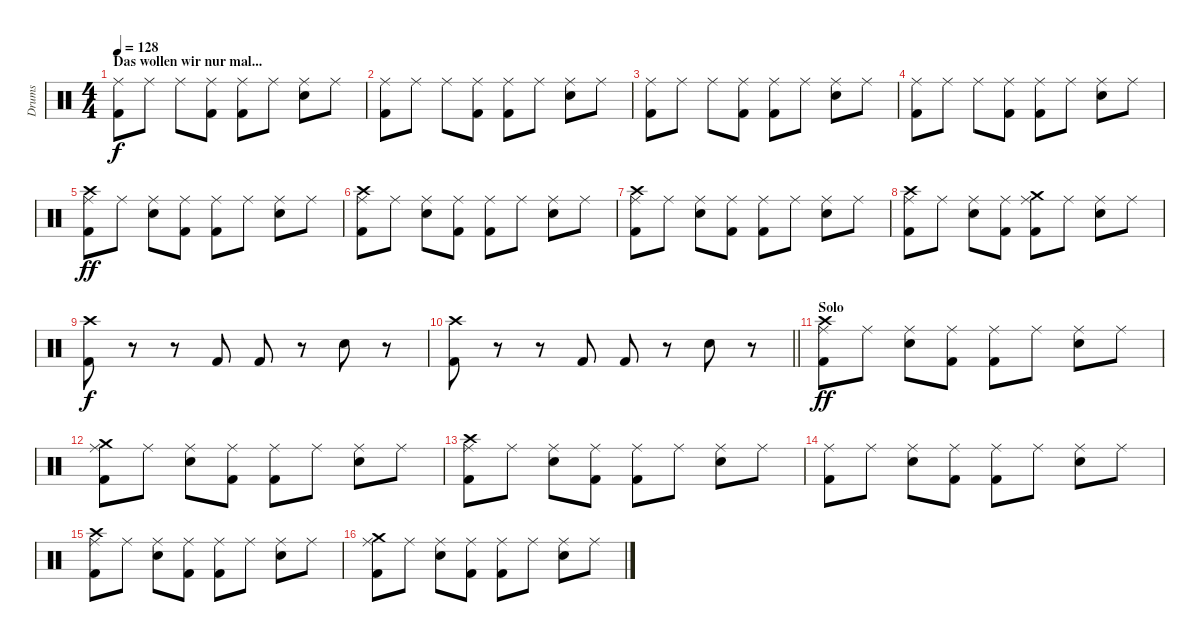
\track ("Drums" "Drums") {instrument percussion}
\staff {score}
\articulation defaults
\ts (4 4)
\section ("" "Das wollen wir nur mal...")
\tempo 128
\clef neutral
\ks c
("Ride (middle)" "Kick (hit) 2").8{dy f} "Ride (middle)".8 "Ride (middle)".8 ("Ride (middle)" "Kick (hit) 2").8 ("Ride (middle)" "Kick (hit) 2").8 "Ride (middle)".8 ("Ride (middle)" "Snare (hit) 2").8 "Ride (middle)".8 |
("Ride (middle)" "Kick (hit) 2").8 "Ride (middle)".8 "Ride (middle)".8 ("Ride (middle)" "Kick (hit) 2").8 ("Ride (middle)" "Kick (hit) 2").8 "Ride (middle)".8 ("Ride (middle)" "Snare (hit) 2").8 "Ride (middle)".8 |
("Ride (middle)" "Kick (hit) 2").8 "Ride (middle)".8 "Ride (middle)".8 ("Ride (middle)" "Kick (hit) 2").8 ("Ride (middle)" "Kick (hit) 2").8 "Ride (middle)".8 ("Ride (middle)" "Snare (hit) 2").8 "Ride (middle)".8 |
("Ride (middle)" "Kick (hit) 2").8 "Ride (middle)".8 "Ride (middle)".8 ("Ride (middle)" "Kick (hit) 2").8 ("Ride (middle)" "Kick (hit) 2").8 "Ride (middle)".8 ("Ride (middle)" "Snare (hit) 2").8 "Ride (middle)".8 |
("Ride (middle)" "Kick (hit) 2" "Crash high (hit)").8{dy ff} "Ride (middle)".8 ("Ride (middle)" "Snare (hit) 2").8 ("Ride (middle)" "Kick (hit) 2").8 ("Ride (middle)" "Kick (hit) 2").8 "Ride (middle)".8 ("Ride (middle)" "Snare (hit) 2").8 "Ride (middle)".8 |
("Ride (middle)" "Kick (hit) 2" "Crash high (hit)").8 "Ride (middle)".8 ("Ride (middle)" "Snare (hit) 2").8 ("Ride (middle)" "Kick (hit) 2").8 ("Ride (middle)" "Kick (hit) 2").8 "Ride (middle)".8 ("Ride (middle)" "Snare (hit) 2").8 "Ride (middle)".8 |
("Ride (middle)" "Kick (hit) 2" "Crash high (hit)").8 "Ride (middle)".8 ("Ride (middle)" "Snare (hit) 2").8 ("Ride (middle)" "Kick (hit) 2").8 ("Ride (middle)" "Kick (hit) 2").8 "Ride (middle)".8 ("Ride (middle)" "Snare (hit) 2").8 "Ride (middle)".8 |
("Ride (middle)" "Kick (hit) 2" "Crash high (hit)").8 "Ride (middle)".8 ("Ride (middle)" "Snare (hit) 2").8 ("Ride (middle)" "Kick (hit) 2").8 ("Ride (middle)" "Kick (hit) 2" "Crash medium (hit)").8 "Ride (middle)".8 ("Ride (middle)" "Snare (hit) 2").8 "Ride (middle)".8 |
("Kick (hit) 2" "Crash high (hit)").8{dy f} r.8 r.8 "Kick (hit) 2".8 "Kick (hit) 2".8 r.8 "Snare (hit) 2".8 r.8 |
\barLineRight lightlight
("Kick (hit) 2" "Crash high (hit)").8 r.8 r.8 "Kick (hit) 2".8 "Kick (hit) 2".8 r.8 "Snare (hit) 2".8 r.8 |
\section ("" "Solo")
("Ride (middle)" "Kick (hit) 2" "Crash high (hit)").8{dy ff} "Ride (middle)".8 ("Ride (middle)" "Snare (hit) 2").8 ("Ride (middle)" "Kick (hit) 2").8 ("Ride (middle)" "Kick (hit) 2").8 "Ride (middle)".8 ("Ride (middle)" "Snare (hit) 2").8 "Ride (middle)".8 |
("Ride (middle)" "Kick (hit) 2" "Crash medium (hit)").8 "Ride (middle)".8 ("Ride (middle)" "Snare (hit) 2").8 ("Ride (middle)" "Kick (hit) 2").8 ("Ride (middle)" "Kick (hit) 2").8 "Ride (middle)".8 ("Ride (middle)" "Snare (hit) 2").8 "Ride (middle)".8 |
("Ride (middle)" "Kick (hit) 2" "Crash high (hit)").8 "Ride (middle)".8 ("Ride (middle)" "Snare (hit) 2").8 ("Ride (middle)" "Kick (hit) 2").8 ("Ride (middle)" "Kick (hit) 2").8 "Ride (middle)".8 ("Ride (middle)" "Snare (hit) 2").8 "Ride (middle)".8 |
("Ride (middle)" "Kick (hit) 2").8 "Ride (middle)".8 ("Ride (middle)" "Snare (hit) 2").8 ("Ride (middle)" "Kick (hit) 2").8 ("Ride (middle)" "Kick (hit) 2").8 "Ride (middle)".8 ("Ride (middle)" "Snare (hit) 2").8 "Ride (middle)".8 |
("Ride (middle)" "Kick (hit) 2" "Crash high (hit)").8 "Ride (middle)".8 ("Ride (middle)" "Snare (hit) 2").8 ("Ride (middle)" "Kick (hit) 2").8 ("Ride (middle)" "Kick (hit) 2").8 "Ride (middle)".8 ("Ride (middle)" "Snare (hit) 2").8 "Ride (middle)".8 |
("Ride (middle)" "Kick (hit) 2" "Crash medium (hit)").8 "Ride (middle)".8 ("Ride (middle)" "Snare (hit) 2").8 ("Ride (middle)" "Kick (hit) 2").8 ("Ride (middle)" "Kick (hit) 2").8 "Ride (middle)".8 ("Ride (middle)" "Snare (hit) 2").8 "Ride (middle)".8
